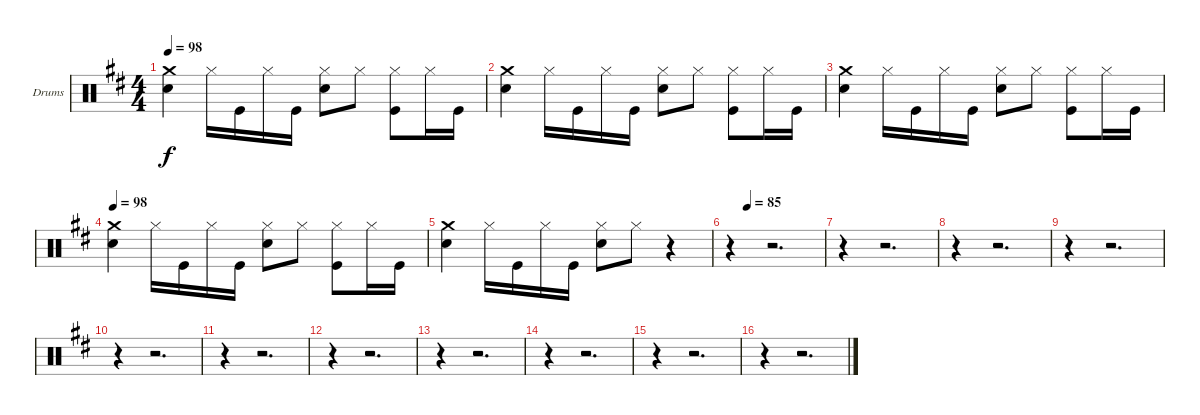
\bracketExtendMode groupsimilarinstruments
\firstSystemTrackNameOrientation horizontal
\otherSystemsTrackNameOrientation horizontal
\track ("Drumkit" "Drums") {instrument percussion}
\staff {score}
\articulation defaults
\ts (4 4)
\tempo 98
\clef neutral
\ks d
("Crash medium (hit)" "Snare (hit) 2").4{dy f} "Hi-Hat (closed)".16 "Kick (hit)".16 "Hi-Hat (closed)".16 "Kick (hit)".16 ("Hi-Hat (closed)" "Snare (hit) 2").8 "Hi-Hat (closed)".8 ("Hi-Hat (closed)" "Kick (hit)").8 "Hi-Hat (closed)".16 "Kick (hit)".16 |
("Crash medium (hit)" "Snare (hit) 2").4 "Hi-Hat (closed)".16 "Kick (hit)".16 "Hi-Hat (closed)".16 "Kick (hit)".16 ("Hi-Hat (closed)" "Snare (hit) 2").8 "Hi-Hat (closed)".8 ("Hi-Hat (closed)" "Kick (hit)").8 "Hi-Hat (closed)".16 "Kick (hit)".16 |
("Crash medium (hit)" "Snare (hit) 2").4 "Hi-Hat (closed)".16 "Kick (hit)".16 "Hi-Hat (closed)".16 "Kick (hit)".16 ("Hi-Hat (closed)" "Snare (hit) 2").8 "Hi-Hat (closed)".8 ("Hi-Hat (closed)" "Kick (hit)").8 "Hi-Hat (closed)".16 "Kick (hit)".16 |
\tempo 98
("Crash medium (hit)" "Snare (hit) 2").4 "Hi-Hat (closed)".16 "Kick (hit)".16 "Hi-Hat (closed)".16 "Kick (hit)".16 ("Hi-Hat (closed)" "Snare (hit) 2").8 "Hi-Hat (closed)".8 ("Hi-Hat (closed)" "Kick (hit)").8 "Hi-Hat (closed)".16 "Kick (hit)".16 |
("Crash medium (hit)" "Snare (hit) 2").4 "Hi-Hat (closed)".16 "Kick (hit)".16 "Hi-Hat (closed)".16 "Kick (hit)".16 ("Hi-Hat (closed)" "Snare (hit) 2").8 "Hi-Hat (closed)".8 r.4 |
\tempo (85 0.1875)
r.4 r.2{d} |
r.4 r.2{d} |
r.4 r.2{d} |
r.4 r.2{d} |
r.4 r.2{d} |
r.4 r.2{d} |
r.4 r.2{d} |
r.4 r.2{d} |
r.4 r.2{d} |
r.4 r.2{d} |
r.4 r.2{d}
